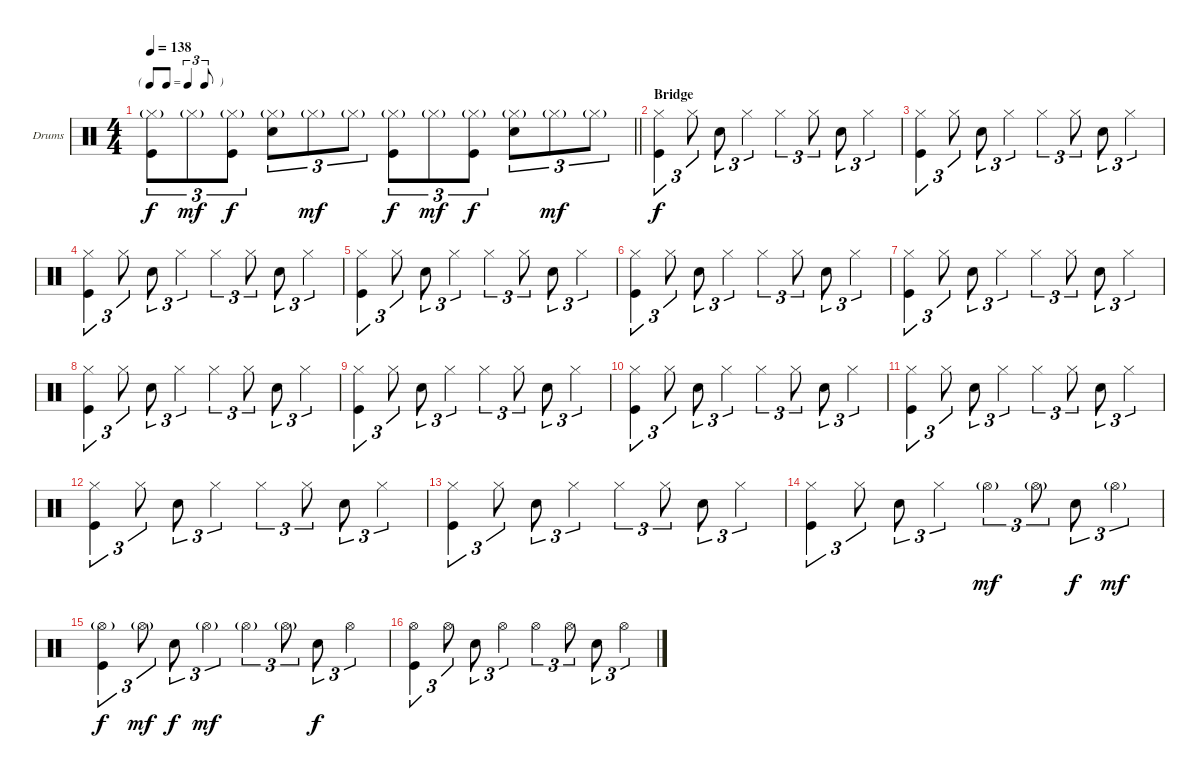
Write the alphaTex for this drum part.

\bracketExtendMode groupsimilarinstruments
\firstSystemTrackNameOrientation horizontal
\otherSystemsTrackNameOrientation horizontal
\track ("Drumkit" "Drums") {instrument percussion}
\staff {score}
\articulation defaults
\ts (4 4)
\tf triplet8th
\tempo 138
\clef neutral
\barLineRight lightlight
\ks c
("Hi-Hat (closed)"{g} "Kick (hit)").8{tu (3 2) dy f} "Hi-Hat (closed)"{g}.8{tu (3 2) dy mf} ("Hi-Hat (closed)"{g} "Kick (hit)").8{tu (3 2) dy f} ("Hi-Hat (closed)"{g} "Snare (hit) 2").8{tu (3 2)} "Hi-Hat (closed)"{g}.8{tu (3 2) dy mf} "Hi-Hat (closed)"{g}.8{tu (3 2)} ("Hi-Hat (closed)"{g} "Kick (hit)").8{tu (3 2) dy f} "Hi-Hat (closed)"{g}.8{tu (3 2) dy mf} ("Hi-Hat (closed)"{g} "Kick (hit)").8{tu (3 2) dy f} ("Hi-Hat (closed)"{g} "Snare (hit) 2").8{tu (3 2)} "Hi-Hat (closed)"{g}.8{tu (3 2) dy mf} "Hi-Hat (closed)"{g}.8{tu (3 2)} |
\section ("" "Bridge")
("Hi-Hat (closed)" "Kick (hit)").4{tu (3 2) dy f} "Hi-Hat (closed)".8{tu (3 2)} "Snare (hit) 2".8{tu (3 2)} "Hi-Hat (closed)".4{tu (3 2)} "Hi-Hat (closed)".4{tu (3 2)} "Hi-Hat (closed)".8{tu (3 2)} "Snare (hit) 2".8{tu (3 2)} "Hi-Hat (closed)".4{tu (3 2)} |
("Hi-Hat (closed)" "Kick (hit)").4{tu (3 2)} "Hi-Hat (closed)".8{tu (3 2)} "Snare (hit) 2".8{tu (3 2)} "Hi-Hat (closed)".4{tu (3 2)} "Hi-Hat (closed)".4{tu (3 2)} "Hi-Hat (closed)".8{tu (3 2)} "Snare (hit) 2".8{tu (3 2)} "Hi-Hat (closed)".4{tu (3 2)} |
("Hi-Hat (closed)" "Kick (hit)").4{tu (3 2)} "Hi-Hat (closed)".8{tu (3 2)} "Snare (hit) 2".8{tu (3 2)} "Hi-Hat (closed)".4{tu (3 2)} "Hi-Hat (closed)".4{tu (3 2)} "Hi-Hat (closed)".8{tu (3 2)} "Snare (hit) 2".8{tu (3 2)} "Hi-Hat (closed)".4{tu (3 2)} |
("Hi-Hat (closed)" "Kick (hit)").4{tu (3 2)} "Hi-Hat (closed)".8{tu (3 2)} "Snare (hit) 2".8{tu (3 2)} "Hi-Hat (closed)".4{tu (3 2)} "Hi-Hat (closed)".4{tu (3 2)} "Hi-Hat (closed)".8{tu (3 2)} "Snare (hit) 2".8{tu (3 2)} "Hi-Hat (closed)".4{tu (3 2)} |
("Hi-Hat (closed)" "Kick (hit)").4{tu (3 2)} "Hi-Hat (closed)".8{tu (3 2)} "Snare (hit) 2".8{tu (3 2)} "Hi-Hat (closed)".4{tu (3 2)} "Hi-Hat (closed)".4{tu (3 2)} "Hi-Hat (closed)".8{tu (3 2)} "Snare (hit) 2".8{tu (3 2)} "Hi-Hat (closed)".4{tu (3 2)} |
("Hi-Hat (closed)" "Kick (hit)").4{tu (3 2)} "Hi-Hat (closed)".8{tu (3 2)} "Snare (hit) 2".8{tu (3 2)} "Hi-Hat (closed)".4{tu (3 2)} "Hi-Hat (closed)".4{tu (3 2)} "Hi-Hat (closed)".8{tu (3 2)} "Snare (hit) 2".8{tu (3 2)} "Hi-Hat (closed)".4{tu (3 2)} |
("Hi-Hat (closed)" "Kick (hit)").4{tu (3 2)} "Hi-Hat (closed)".8{tu (3 2)} "Snare (hit) 2".8{tu (3 2)} "Hi-Hat (closed)".4{tu (3 2)} "Hi-Hat (closed)".4{tu (3 2)} "Hi-Hat (closed)".8{tu (3 2)} "Snare (hit) 2".8{tu (3 2)} "Hi-Hat (closed)".4{tu (3 2)} |
("Hi-Hat (closed)" "Kick (hit)").4{tu (3 2)} "Hi-Hat (closed)".8{tu (3 2)} "Snare (hit) 2".8{tu (3 2)} "Hi-Hat (closed)".4{tu (3 2)} "Hi-Hat (closed)".4{tu (3 2)} "Hi-Hat (closed)".8{tu (3 2)} "Snare (hit) 2".8{tu (3 2)} "Hi-Hat (closed)".4{tu (3 2)} |
("Hi-Hat (closed)" "Kick (hit)").4{tu (3 2)} "Hi-Hat (closed)".8{tu (3 2)} "Snare (hit) 2".8{tu (3 2)} "Hi-Hat (closed)".4{tu (3 2)} "Hi-Hat (closed)".4{tu (3 2)} "Hi-Hat (closed)".8{tu (3 2)} "Snare (hit) 2".8{tu (3 2)} "Hi-Hat (closed)".4{tu (3 2)} |
("Hi-Hat (closed)" "Kick (hit)").4{tu (3 2)} "Hi-Hat (closed)".8{tu (3 2)} "Snare (hit) 2".8{tu (3 2)} "Hi-Hat (closed)".4{tu (3 2)} "Hi-Hat (closed)".4{tu (3 2)} "Hi-Hat (closed)".8{tu (3 2)} "Snare (hit) 2".8{tu (3 2)} "Hi-Hat (closed)".4{tu (3 2)} |
("Hi-Hat (closed)" "Kick (hit)").4{tu (3 2)} "Hi-Hat (closed)".8{tu (3 2)} "Snare (hit) 2".8{tu (3 2)} "Hi-Hat (closed)".4{tu (3 2)} "Hi-Hat (closed)".4{tu (3 2)} "Hi-Hat (closed)".8{tu (3 2)} "Snare (hit) 2".8{tu (3 2)} "Hi-Hat (closed)".4{tu (3 2)} |
("Hi-Hat (closed)" "Kick (hit)").4{tu (3 2)} "Hi-Hat (closed)".8{tu (3 2)} "Snare (hit) 2".8{tu (3 2)} "Hi-Hat (closed)".4{tu (3 2)} "Hi-Hat (closed)".4{tu (3 2)} "Hi-Hat (closed)".8{tu (3 2)} "Snare (hit) 2".8{tu (3 2)} "Hi-Hat (closed)".4{tu (3 2)} |
("Hi-Hat (closed)" "Kick (hit)").4{tu (3 2)} "Hi-Hat (closed)".8{tu (3 2)} "Snare (hit) 2".8{tu (3 2)} "Hi-Hat (closed)".4{tu (3 2)} "Hi-Hat (open)"{g}.4{tu (3 2) dy mf} "Hi-Hat (open)"{g}.8{tu (3 2)} "Snare (hit) 2".8{tu (3 2) dy f} "Hi-Hat (open)"{g}.4{tu (3 2) dy mf} |
("Hi-Hat (open)"{g} "Kick (hit)").4{tu (3 2) dy f} "Hi-Hat (open)"{g}.8{tu (3 2) dy mf} "Snare (hit) 2".8{tu (3 2) dy f} "Hi-Hat (open)"{g}.4{tu (3 2) dy mf} "Hi-Hat (open)"{g}.4{tu (3 2)} "Hi-Hat (open)"{g}.8{tu (3 2)} "Snare (hit) 2".8{tu (3 2) dy f} "Hi-Hat (open)".4{tu (3 2)} |
("Hi-Hat (open)" "Kick (hit)").4{tu (3 2)} "Hi-Hat (open)".8{tu (3 2)} "Snare (hit) 2".8{tu (3 2)} "Hi-Hat (open)".4{tu (3 2)} "Hi-Hat (open)".4{tu (3 2)} "Hi-Hat (open)".8{tu (3 2)} "Snare (hit) 2".8{tu (3 2)} "Hi-Hat (open)".4{tu (3 2)}
